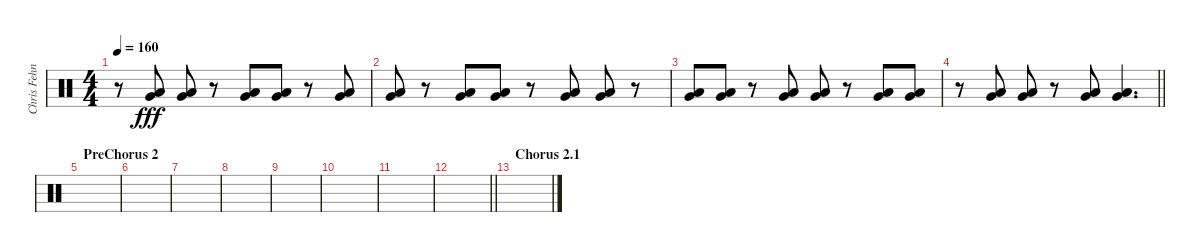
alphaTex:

\track ("Chris Fehn" "Chris Fehn") {instrument percussion}
\staff {score}
\articulation defaults
\ts (4 4)
\tempo 160
\clef neutral
\ks c
r.8{dy fff} ("Very Low Tom (hit)" "Low Floor Tom (hit)").8 ("Very Low Tom (hit)" "Low Floor Tom (hit)").8 r.8 ("Very Low Tom (hit)" "Low Floor Tom (hit)").8 ("Very Low Tom (hit)" "Low Floor Tom (hit)").8 r.8 ("Very Low Tom (hit)" "Low Floor Tom (hit)").8 |
("Very Low Tom (hit)" "Low Floor Tom (hit)").8 r.8 ("Very Low Tom (hit)" "Low Floor Tom (hit)").8 ("Very Low Tom (hit)" "Low Floor Tom (hit)").8 r.8 ("Very Low Tom (hit)" "Low Floor Tom (hit)").8 ("Very Low Tom (hit)" "Low Floor Tom (hit)").8 r.8 |
("Very Low Tom (hit)" "Low Floor Tom (hit)").8 ("Very Low Tom (hit)" "Low Floor Tom (hit)").8 r.8 ("Very Low Tom (hit)" "Low Floor Tom (hit)").8 ("Very Low Tom (hit)" "Low Floor Tom (hit)").8 r.8 ("Very Low Tom (hit)" "Low Floor Tom (hit)").8 ("Very Low Tom (hit)" "Low Floor Tom (hit)").8 |
\barLineRight lightlight
r.8 ("Very Low Tom (hit)" "Low Floor Tom (hit)").8 ("Very Low Tom (hit)" "Low Floor Tom (hit)").8 r.8 ("Very Low Tom (hit)" "Low Floor Tom (hit)").8 ("Very Low Tom (hit)" "Low Floor Tom (hit)").4{d} |
\section ("" "PreChorus 2")
|
|
|
|
|
|
|
\barLineRight lightlight
|
\section ("" "Chorus 2.1")
